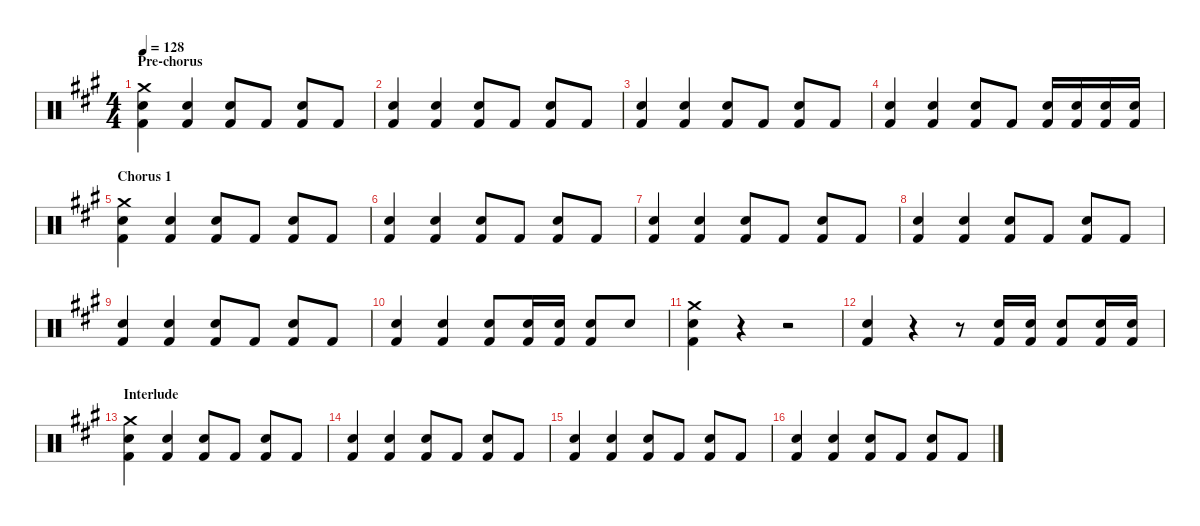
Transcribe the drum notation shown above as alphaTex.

\defaultSystemsLayout 4
\hideDynamics
\bracketExtendMode nobrackets
\singleTrackTrackNamePolicy hidden
\multiTrackTrackNamePolicy hidden
\firstSystemTrackNameMode fullname
\firstSystemTrackNameOrientation horizontal
\otherSystemsTrackNameOrientation horizontal
\track ("Drumkit" "Drums") {instrument percussion}
\staff {score}
\articulation defaults
\ts (4 4)
\section ("" "Pre-chorus")
\tempo 128
\clef neutral
\ks a
("Crash medium (hit)"{acc forcenatural} "Snare (hit) 2"{acc forcenatural} "Kick (hit) 2"{acc forcenatural}).4{dy f beam Down} ("Snare (hit) 2"{acc forcenatural} "Kick (hit) 2"{acc forcenatural}).4{beam Up} ("Snare (hit) 2"{acc forcenatural} "Kick (hit) 2"{acc forcenatural}).8{beam Up} "Kick (hit) 2"{acc forcenatural}.8{beam Up} ("Snare (hit) 2"{acc forcenatural} "Kick (hit) 2"{acc forcenatural}).8{beam Up} "Kick (hit) 2"{acc forcenatural}.8{beam Up} |
("Snare (hit) 2"{acc forcenatural} "Kick (hit) 2"{acc forcenatural}).4{beam Up} ("Snare (hit) 2"{acc forcenatural} "Kick (hit) 2"{acc forcenatural}).4{beam Up} ("Snare (hit) 2"{acc forcenatural} "Kick (hit) 2"{acc forcenatural}).8{beam Up} "Kick (hit) 2"{acc forcenatural}.8{beam Up} ("Snare (hit) 2"{acc forcenatural} "Kick (hit) 2"{acc forcenatural}).8{beam Up} "Kick (hit) 2"{acc forcenatural}.8{beam Up} |
("Snare (hit) 2"{acc forcenatural} "Kick (hit) 2"{acc forcenatural}).4{beam Up} ("Snare (hit) 2"{acc forcenatural} "Kick (hit) 2"{acc forcenatural}).4{beam Up} ("Snare (hit) 2"{acc forcenatural} "Kick (hit) 2"{acc forcenatural}).8{beam Up} "Kick (hit) 2"{acc forcenatural}.8{beam Up} ("Snare (hit) 2"{acc forcenatural} "Kick (hit) 2"{acc forcenatural}).8{beam Up} "Kick (hit) 2"{acc forcenatural}.8{beam Up} |
("Snare (hit) 2"{acc forcenatural} "Kick (hit) 2"{acc forcenatural}).4{beam Up} ("Snare (hit) 2"{acc forcenatural} "Kick (hit) 2"{acc forcenatural}).4{beam Up} ("Snare (hit) 2"{acc forcenatural} "Kick (hit) 2"{acc forcenatural}).8{beam Up} "Kick (hit) 2"{acc forcenatural}.8{beam Up} ("Snare (hit) 2"{acc forcenatural} "Kick (hit) 2"{acc forcenatural}).16{beam Up} ("Snare (hit) 2"{acc forcenatural} "Kick (hit) 2"{acc forcenatural}).16{beam Up} ("Snare (hit) 2"{acc forcenatural} "Kick (hit) 2"{acc forcenatural}).16{beam Up} ("Snare (hit) 2"{acc forcenatural} "Kick (hit) 2"{acc forcenatural}).16{beam Up} |
\section ("" "Chorus 1")
("Crash medium (hit)"{acc forcenatural} "Snare (hit) 2"{acc forcenatural} "Kick (hit) 2"{acc forcenatural}).4{beam Down} ("Snare (hit) 2"{acc forcenatural} "Kick (hit) 2"{acc forcenatural}).4{beam Up} ("Snare (hit) 2"{acc forcenatural} "Kick (hit) 2"{acc forcenatural}).8{beam Up} "Kick (hit) 2"{acc forcenatural}.8{beam Up} ("Snare (hit) 2"{acc forcenatural} "Kick (hit) 2"{acc forcenatural}).8{beam Up} "Kick (hit) 2"{acc forcenatural}.8{beam Up} |
("Snare (hit) 2"{acc forcenatural} "Kick (hit) 2"{acc forcenatural}).4{beam Up} ("Snare (hit) 2"{acc forcenatural} "Kick (hit) 2"{acc forcenatural}).4{beam Up} ("Snare (hit) 2"{acc forcenatural} "Kick (hit) 2"{acc forcenatural}).8{beam Up} "Kick (hit) 2"{acc forcenatural}.8{beam Up} ("Snare (hit) 2"{acc forcenatural} "Kick (hit) 2"{acc forcenatural}).8{beam Up} "Kick (hit) 2"{acc forcenatural}.8{beam Up} |
("Snare (hit) 2"{acc forcenatural} "Kick (hit) 2"{acc forcenatural}).4{beam Up} ("Snare (hit) 2"{acc forcenatural} "Kick (hit) 2"{acc forcenatural}).4{beam Up} ("Snare (hit) 2"{acc forcenatural} "Kick (hit) 2"{acc forcenatural}).8{beam Up} "Kick (hit) 2"{acc forcenatural}.8{beam Up} ("Snare (hit) 2"{acc forcenatural} "Kick (hit) 2"{acc forcenatural}).8{beam Up} "Kick (hit) 2"{acc forcenatural}.8{beam Up} |
("Snare (hit) 2"{acc forcenatural} "Kick (hit) 2"{acc forcenatural}).4{beam Up} ("Snare (hit) 2"{acc forcenatural} "Kick (hit) 2"{acc forcenatural}).4{beam Up} ("Snare (hit) 2"{acc forcenatural} "Kick (hit) 2"{acc forcenatural}).8{beam Up} "Kick (hit) 2"{acc forcenatural}.8{beam Up} ("Snare (hit) 2"{acc forcenatural} "Kick (hit) 2"{acc forcenatural}).8{beam Up} "Kick (hit) 2"{acc forcenatural}.8{beam Up} |
("Snare (hit) 2"{acc forcenatural} "Kick (hit) 2"{acc forcenatural}).4{beam Up} ("Snare (hit) 2"{acc forcenatural} "Kick (hit) 2"{acc forcenatural}).4{beam Up} ("Snare (hit) 2"{acc forcenatural} "Kick (hit) 2"{acc forcenatural}).8{beam Up} "Kick (hit) 2"{acc forcenatural}.8{beam Up} ("Snare (hit) 2"{acc forcenatural} "Kick (hit) 2"{acc forcenatural}).8{beam Up} "Kick (hit) 2"{acc forcenatural}.8{beam Up} |
("Snare (hit) 2"{acc forcenatural} "Kick (hit) 2"{acc forcenatural}).4{beam Up} ("Snare (hit) 2"{acc forcenatural} "Kick (hit) 2"{acc forcenatural}).4{beam Up} ("Snare (hit) 2"{acc forcenatural} "Kick (hit) 2"{acc forcenatural}).8{beam Up} ("Snare (hit) 2"{acc forcenatural} "Kick (hit) 2"{acc forcenatural}).16{beam Up} ("Snare (hit) 2"{acc forcenatural} "Kick (hit) 2"{acc forcenatural}).16{beam Up} ("Snare (hit) 2"{acc forcenatural} "Kick (hit) 2"{acc forcenatural}).8{beam Up} "Snare (hit) 2"{acc forcenatural}.8{beam Up} |
("Snare (hit) 2"{acc forcenatural} "Kick (hit) 2"{acc forcenatural} "Crash medium (hit)"{acc forcenatural}).4{beam Down} r.4{beam Down} r.2{beam Down} |
("Snare (hit) 2"{acc forcenatural} "Kick (hit) 2"{acc forcenatural}).4{beam Up} r.4{beam Up} r.8{beam Up} ("Snare (hit) 2"{acc forcenatural} "Kick (hit) 2"{acc forcenatural}).16{beam Up} ("Snare (hit) 2"{acc forcenatural} "Kick (hit) 2"{acc forcenatural}).16{beam Up} ("Snare (hit) 2"{acc forcenatural} "Kick (hit) 2"{acc forcenatural}).8{beam Up} ("Snare (hit) 2"{acc forcenatural} "Kick (hit) 2"{acc forcenatural}).16{beam Up} ("Snare (hit) 2"{acc forcenatural} "Kick (hit) 2"{acc forcenatural}).16{beam Up} |
\section ("" "Interlude")
("Crash medium (hit)"{acc forcenatural} "Snare (hit) 2"{acc forcenatural} "Kick (hit) 2"{acc forcenatural}).4{beam Down} ("Snare (hit) 2"{acc forcenatural} "Kick (hit) 2"{acc forcenatural}).4{beam Up} ("Snare (hit) 2"{acc forcenatural} "Kick (hit) 2"{acc forcenatural}).8{beam Up} "Kick (hit) 2"{acc forcenatural}.8{beam Up} ("Snare (hit) 2"{acc forcenatural} "Kick (hit) 2"{acc forcenatural}).8{beam Up} "Kick (hit) 2"{acc forcenatural}.8{beam Up} |
("Snare (hit) 2"{acc forcenatural} "Kick (hit) 2"{acc forcenatural}).4{beam Up} ("Snare (hit) 2"{acc forcenatural} "Kick (hit) 2"{acc forcenatural}).4{beam Up} ("Snare (hit) 2"{acc forcenatural} "Kick (hit) 2"{acc forcenatural}).8{beam Up} "Kick (hit) 2"{acc forcenatural}.8{beam Up} ("Snare (hit) 2"{acc forcenatural} "Kick (hit) 2"{acc forcenatural}).8{beam Up} "Kick (hit) 2"{acc forcenatural}.8{beam Up} |
("Snare (hit) 2"{acc forcenatural} "Kick (hit) 2"{acc forcenatural}).4{beam Up} ("Snare (hit) 2"{acc forcenatural} "Kick (hit) 2"{acc forcenatural}).4{beam Up} ("Snare (hit) 2"{acc forcenatural} "Kick (hit) 2"{acc forcenatural}).8{beam Up} "Kick (hit) 2"{acc forcenatural}.8{beam Up} ("Snare (hit) 2"{acc forcenatural} "Kick (hit) 2"{acc forcenatural}).8{beam Up} "Kick (hit) 2"{acc forcenatural}.8{beam Up} |
("Snare (hit) 2"{acc forcenatural} "Kick (hit) 2"{acc forcenatural}).4{beam Up} ("Snare (hit) 2"{acc forcenatural} "Kick (hit) 2"{acc forcenatural}).4{beam Up} ("Snare (hit) 2"{acc forcenatural} "Kick (hit) 2"{acc forcenatural}).8{beam Up} "Kick (hit) 2"{acc forcenatural}.8{beam Up} ("Snare (hit) 2"{acc forcenatural} "Kick (hit) 2"{acc forcenatural}).8{beam Up} "Kick (hit) 2"{acc forcenatural}.8{beam Up}
